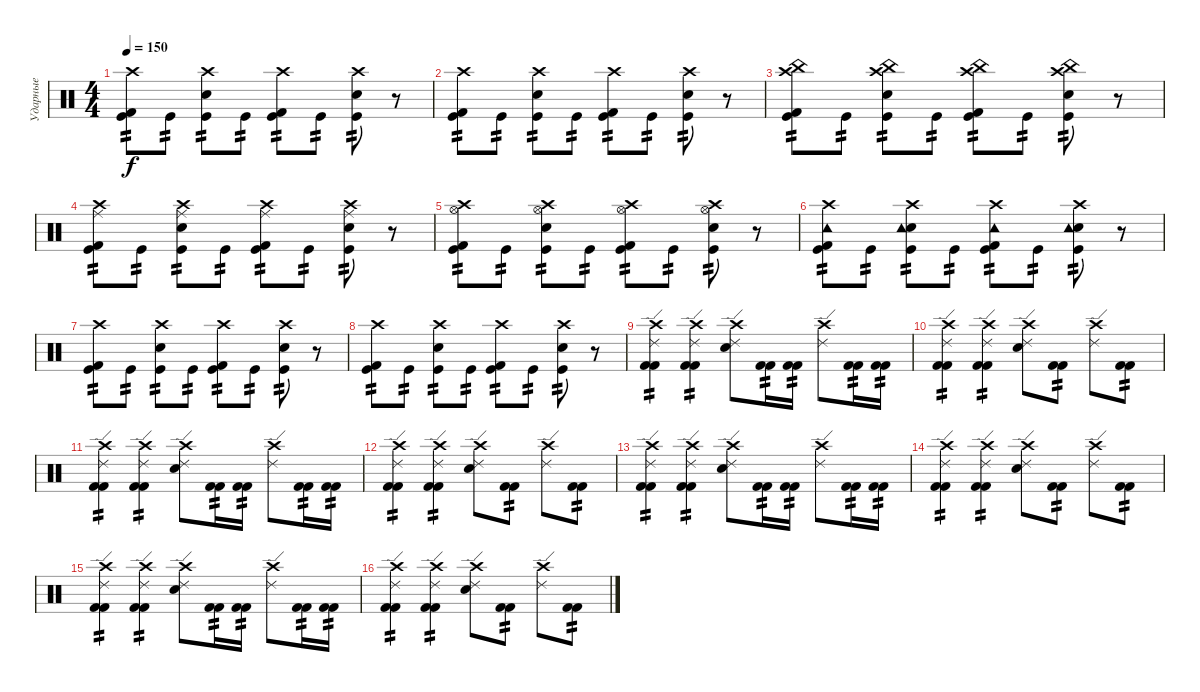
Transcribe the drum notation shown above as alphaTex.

\track ("Ударные" "Ударные") {instrument percussion}
\staff {score}
\articulation defaults
\ts (4 4)
\tempo 150
\clef neutral
\ks c
("Crash high (hit)" "Kick (hit) 2" "Kick (hit)").8{tp 2 dy f} "Kick (hit)".8{tp 2} ("Crash high (hit)" "Electric Snare (hit)" "Kick (hit)").8{tp 2} "Kick (hit)".8{tp 2} ("Crash high (hit)" "Kick (hit) 2" "Kick (hit)").8{tp 2} "Kick (hit)".8{tp 2} ("Crash high (hit)" "Electric Snare (hit)" "Kick (hit)").8{tp 2} r.8 |
("Crash high (hit)" "Kick (hit) 2" "Kick (hit)").8{tp 2} "Kick (hit)".8{tp 2} ("Crash high (hit)" "Electric Snare (hit)" "Kick (hit)").8{tp 2} "Kick (hit)".8{tp 2} ("Crash high (hit)" "Kick (hit) 2" "Kick (hit)").8{tp 2} "Kick (hit)".8{tp 2} ("Crash high (hit)" "Electric Snare (hit)" "Kick (hit)").8{tp 2} r.8 |
("Crash high (hit)" "Kick (hit) 2" "China (hit)" "Kick (hit)").8{tp 2} "Kick (hit)".8{tp 2} ("Crash high (hit)" "Electric Snare (hit)" "China (hit)" "Kick (hit)").8{tp 2} "Kick (hit)".8{tp 2} ("Crash high (hit)" "Kick (hit) 2" "China (hit)" "Kick (hit)").8{tp 2} "Kick (hit)".8{tp 2} ("Crash high (hit)" "Electric Snare (hit)" "China (hit)" "Kick (hit)").8{tp 2} r.8 |
("Crash high (hit)" "Kick (hit) 2" "Ride (middle)" "Kick (hit)").8{tp 2} "Kick (hit)".8{tp 2} ("Crash high (hit)" "Electric Snare (hit)" "Ride (middle)" "Kick (hit)").8{tp 2} "Kick (hit)".8{tp 2} ("Crash high (hit)" "Kick (hit) 2" "Ride (middle)" "Kick (hit)").8{tp 2} "Kick (hit)".8{tp 2} ("Crash high (hit)" "Electric Snare (hit)" "Ride (middle)" "Kick (hit)").8{tp 2} r.8 |
("Crash high (hit)" "Kick (hit) 2" "Hi-Hat (open)" "Kick (hit)").8{tp 2} "Kick (hit)".8{tp 2} ("Crash high (hit)" "Electric Snare (hit)" "Hi-Hat (open)" "Kick (hit)").8{tp 2} "Kick (hit)".8{tp 2} ("Crash high (hit)" "Kick (hit) 2" "Hi-Hat (open)" "Kick (hit)").8{tp 2} "Kick (hit)".8{tp 2} ("Crash high (hit)" "Electric Snare (hit)" "Hi-Hat (open)" "Kick (hit)").8{tp 2} r.8 |
("Crash high (hit)" "Kick (hit) 2" "Tambourine (hit)" "Kick (hit)").8{tp 2} "Kick (hit)".8{tp 2} ("Crash high (hit)" "Electric Snare (hit)" "Tambourine (hit)" "Kick (hit)").8{tp 2} "Kick (hit)".8{tp 2} ("Crash high (hit)" "Kick (hit) 2" "Tambourine (hit)" "Kick (hit)").8{tp 2} "Kick (hit)".8{tp 2} ("Crash high (hit)" "Electric Snare (hit)" "Tambourine (hit)" "Kick (hit)").8{tp 2} r.8 |
("Crash high (hit)" "Kick (hit) 2" "Kick (hit)").8{tp 2} "Kick (hit)".8{tp 2} ("Crash high (hit)" "Electric Snare (hit)" "Kick (hit)").8{tp 2} "Kick (hit)".8{tp 2} ("Crash high (hit)" "Kick (hit) 2" "Kick (hit)").8{tp 2} "Kick (hit)".8{tp 2} ("Crash high (hit)" "Electric Snare (hit)" "Kick (hit)").8{tp 2} r.8 |
("Crash high (hit)" "Kick (hit) 2" "Kick (hit)").8{tp 2} "Kick (hit)".8{tp 2} ("Crash high (hit)" "Electric Snare (hit)" "Kick (hit)").8{tp 2} "Kick (hit)".8{tp 2} ("Crash high (hit)" "Kick (hit) 2" "Kick (hit)").8{tp 2} "Kick (hit)".8{tp 2} ("Crash high (hit)" "Electric Snare (hit)" "Kick (hit)").8{tp 2} r.8 |
("Crash high (hit)" "Ride (edge) 2" "Kick (hit) 2" "Kick (hit) 2").4{tp 2} ("Crash high (hit)" "Ride (edge) 2" "Kick (hit) 2" "Kick (hit) 2").4{tp 2} ("Crash high (hit)" "Ride (edge) 2" "Electric Snare (hit)").8 ("Kick (hit) 2" "Kick (hit) 2").16{tp 2} ("Kick (hit) 2" "Kick (hit) 2").16{tp 2} ("Crash high (hit)" "Ride (edge) 2").8 ("Kick (hit) 2" "Kick (hit) 2").16{tp 2} ("Kick (hit) 2" "Kick (hit) 2").16{tp 2} |
("Crash high (hit)" "Ride (edge) 2" "Kick (hit) 2" "Kick (hit) 2").4{tp 2} ("Crash high (hit)" "Ride (edge) 2" "Kick (hit) 2" "Kick (hit) 2").4{tp 2} ("Crash high (hit)" "Ride (edge) 2" "Electric Snare (hit)").8 ("Kick (hit) 2" "Kick (hit) 2").8{tp 2} ("Crash high (hit)" "Ride (edge) 2").8 ("Kick (hit) 2" "Kick (hit) 2").8{tp 2} |
("Crash high (hit)" "Ride (edge) 2" "Kick (hit) 2" "Kick (hit) 2").4{tp 2} ("Crash high (hit)" "Ride (edge) 2" "Kick (hit) 2" "Kick (hit) 2").4{tp 2} ("Crash high (hit)" "Ride (edge) 2" "Electric Snare (hit)").8 ("Kick (hit) 2" "Kick (hit) 2").16{tp 2} ("Kick (hit) 2" "Kick (hit) 2").16{tp 2} ("Crash high (hit)" "Ride (edge) 2").8 ("Kick (hit) 2" "Kick (hit) 2").16{tp 2} ("Kick (hit) 2" "Kick (hit) 2").16{tp 2} |
("Crash high (hit)" "Ride (edge) 2" "Kick (hit) 2" "Kick (hit) 2").4{tp 2} ("Crash high (hit)" "Ride (edge) 2" "Kick (hit) 2" "Kick (hit) 2").4{tp 2} ("Crash high (hit)" "Ride (edge) 2" "Electric Snare (hit)").8 ("Kick (hit) 2" "Kick (hit) 2").8{tp 2} ("Crash high (hit)" "Ride (edge) 2").8 ("Kick (hit) 2" "Kick (hit) 2").8{tp 2} |
("Crash high (hit)" "Ride (edge) 2" "Kick (hit) 2" "Kick (hit) 2").4{tp 2} ("Crash high (hit)" "Ride (edge) 2" "Kick (hit) 2" "Kick (hit) 2").4{tp 2} ("Crash high (hit)" "Ride (edge) 2" "Electric Snare (hit)").8 ("Kick (hit) 2" "Kick (hit) 2").16{tp 2} ("Kick (hit) 2" "Kick (hit) 2").16{tp 2} ("Crash high (hit)" "Ride (edge) 2").8 ("Kick (hit) 2" "Kick (hit) 2").16{tp 2} ("Kick (hit) 2" "Kick (hit) 2").16{tp 2} |
("Crash high (hit)" "Ride (edge) 2" "Kick (hit) 2" "Kick (hit) 2").4{tp 2} ("Crash high (hit)" "Ride (edge) 2" "Kick (hit) 2" "Kick (hit) 2").4{tp 2} ("Crash high (hit)" "Ride (edge) 2" "Electric Snare (hit)").8 ("Kick (hit) 2" "Kick (hit) 2").8{tp 2} ("Crash high (hit)" "Ride (edge) 2").8 ("Kick (hit) 2" "Kick (hit) 2").8{tp 2} |
("Crash high (hit)" "Ride (edge) 2" "Kick (hit) 2" "Kick (hit) 2").4{tp 2} ("Crash high (hit)" "Ride (edge) 2" "Kick (hit) 2" "Kick (hit) 2").4{tp 2} ("Crash high (hit)" "Ride (edge) 2" "Electric Snare (hit)").8 ("Kick (hit) 2" "Kick (hit) 2").16{tp 2} ("Kick (hit) 2" "Kick (hit) 2").16{tp 2} ("Crash high (hit)" "Ride (edge) 2").8 ("Kick (hit) 2" "Kick (hit) 2").16{tp 2} ("Kick (hit) 2" "Kick (hit) 2").16{tp 2} |
("Crash high (hit)" "Ride (edge) 2" "Kick (hit) 2" "Kick (hit) 2").4{tp 2} ("Crash high (hit)" "Ride (edge) 2" "Kick (hit) 2" "Kick (hit) 2").4{tp 2} ("Crash high (hit)" "Ride (edge) 2" "Electric Snare (hit)").8 ("Kick (hit) 2" "Kick (hit) 2").8{tp 2} ("Crash high (hit)" "Ride (edge) 2").8 ("Kick (hit) 2" "Kick (hit) 2").8{tp 2}
